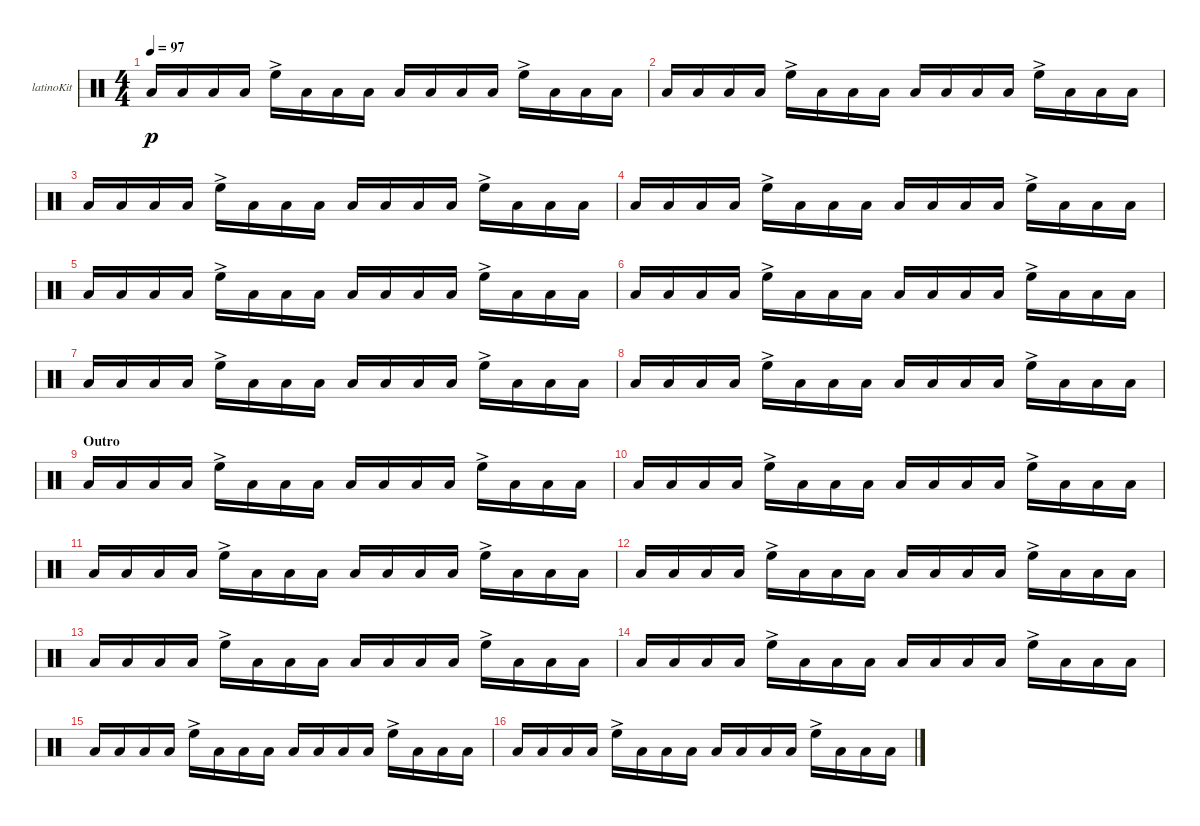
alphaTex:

\bracketExtendMode groupsimilarinstruments
\firstSystemTrackNameOrientation horizontal
\otherSystemsTrackNameOrientation horizontal
\track ("Kit-Latino" "latinoKit") {instrument percussion}
\staff {score}
\articulation defaults
\ts (4 4)
\tempo 97
\clef neutral
\ks c "Low Tom (hit)".16{dy p} "Low Tom (hit)".16 "Low Tom (hit)".16 "Low Tom (hit)".16 "High Floor Tom (hit)"{ac}.16 "Low Tom (hit)".16 "Low Tom (hit)".16 "Low Tom (hit)".16 "Low Tom (hit)".16 "Low Tom (hit)".16 "Low Tom (hit)".16 "Low Tom (hit)".16 "High Floor Tom (hit)"{ac}.16 "Low Tom (hit)".16 "Low Tom (hit)".16 "Low Tom (hit)".16
|
"Low Tom (hit)".16 "Low Tom (hit)".16 "Low Tom (hit)".16 "Low Tom (hit)".16 "High Floor Tom (hit)"{ac}.16 "Low Tom (hit)".16 "Low Tom (hit)".16 "Low Tom (hit)".16 "Low Tom (hit)".16 "Low Tom (hit)".16 "Low Tom (hit)".16 "Low Tom (hit)".16 "High Floor Tom (hit)"{ac}.16 "Low Tom (hit)".16 "Low Tom (hit)".16 "Low Tom (hit)".16 |
"Low Tom (hit)".16 "Low Tom (hit)".16 "Low Tom (hit)".16 "Low Tom (hit)".16 "High Floor Tom (hit)"{ac}.16 "Low Tom (hit)".16 "Low Tom (hit)".16 "Low Tom (hit)".16 "Low Tom (hit)".16 "Low Tom (hit)".16 "Low Tom (hit)".16 "Low Tom (hit)".16 "High Floor Tom (hit)"{ac}.16 "Low Tom (hit)".16 "Low Tom (hit)".16 "Low Tom (hit)".16 |
"Low Tom (hit)".16 "Low Tom (hit)".16 "Low Tom (hit)".16 "Low Tom (hit)".16 "High Floor Tom (hit)"{ac}.16 "Low Tom (hit)".16 "Low Tom (hit)".16 "Low Tom (hit)".16 "Low Tom (hit)".16 "Low Tom (hit)".16 "Low Tom (hit)".16 "Low Tom (hit)".16 "High Floor Tom (hit)"{ac}.16 "Low Tom (hit)".16 "Low Tom (hit)".16 "Low Tom (hit)".16 |
"Low Tom (hit)".16 "Low Tom (hit)".16 "Low Tom (hit)".16 "Low Tom (hit)".16 "High Floor Tom (hit)"{ac}.16 "Low Tom (hit)".16 "Low Tom (hit)".16 "Low Tom (hit)".16 "Low Tom (hit)".16 "Low Tom (hit)".16 "Low Tom (hit)".16 "Low Tom (hit)".16 "High Floor Tom (hit)"{ac}.16 "Low Tom (hit)".16 "Low Tom (hit)".16 "Low Tom (hit)".16 |
"Low Tom (hit)".16 "Low Tom (hit)".16 "Low Tom (hit)".16 "Low Tom (hit)".16 "High Floor Tom (hit)"{ac}.16 "Low Tom (hit)".16 "Low Tom (hit)".16 "Low Tom (hit)".16 "Low Tom (hit)".16 "Low Tom (hit)".16 "Low Tom (hit)".16 "Low Tom (hit)".16 "High Floor Tom (hit)"{ac}.16 "Low Tom (hit)".16 "Low Tom (hit)".16 "Low Tom (hit)".16 |
"Low Tom (hit)".16 "Low Tom (hit)".16 "Low Tom (hit)".16 "Low Tom (hit)".16 "High Floor Tom (hit)"{ac}.16 "Low Tom (hit)".16 "Low Tom (hit)".16 "Low Tom (hit)".16 "Low Tom (hit)".16 "Low Tom (hit)".16 "Low Tom (hit)".16 "Low Tom (hit)".16 "High Floor Tom (hit)"{ac}.16 "Low Tom (hit)".16 "Low Tom (hit)".16 "Low Tom (hit)".16 |
"Low Tom (hit)".16 "Low Tom (hit)".16 "Low Tom (hit)".16 "Low Tom (hit)".16 "High Floor Tom (hit)"{ac}.16 "Low Tom (hit)".16 "Low Tom (hit)".16 "Low Tom (hit)".16 "Low Tom (hit)".16 "Low Tom (hit)".16 "Low Tom (hit)".16 "Low Tom (hit)".16 "High Floor Tom (hit)"{ac}.16 "Low Tom (hit)".16 "Low Tom (hit)".16 "Low Tom (hit)".16 |
\section ("" "Outro")
\scale
0.333333 "Low Tom (hit)".16 "Low Tom (hit)".16 "Low Tom (hit)".16 "Low Tom (hit)".16 "High Floor Tom (hit)"{ac}.16 "Low Tom (hit)".16 "Low Tom (hit)".16 "Low Tom (hit)".16 "Low Tom (hit)".16 "Low Tom (hit)".16 "Low Tom (hit)".16 "Low Tom (hit)".16 "High Floor Tom (hit)"{ac}.16 "Low Tom (hit)".16 "Low Tom (hit)".16 "Low Tom (hit)".16 |
"Low Tom (hit)".16 "Low Tom (hit)".16 "Low Tom (hit)".16 "Low Tom (hit)".16 "High Floor Tom (hit)"{ac}.16 "Low Tom (hit)".16 "Low Tom (hit)".16 "Low Tom (hit)".16 "Low Tom (hit)".16 "Low Tom (hit)".16 "Low Tom (hit)".16 "Low Tom (hit)".16 "High Floor Tom (hit)"{ac}.16 "Low Tom (hit)".16 "Low Tom (hit)".16 "Low Tom (hit)".16 |
"Low Tom (hit)".16 "Low Tom (hit)".16 "Low Tom (hit)".16 "Low Tom (hit)".16 "High Floor Tom (hit)"{ac}.16 "Low Tom (hit)".16 "Low Tom (hit)".16 "Low Tom (hit)".16 "Low Tom (hit)".16 "Low Tom (hit)".16 "Low Tom (hit)".16 "Low Tom (hit)".16 "High Floor Tom (hit)"{ac}.16 "Low Tom (hit)".16 "Low Tom (hit)".16 "Low Tom (hit)".16 |
"Low Tom (hit)".16 "Low Tom (hit)".16 "Low Tom (hit)".16 "Low Tom (hit)".16 "High Floor Tom (hit)"{ac}.16 "Low Tom (hit)".16 "Low Tom (hit)".16 "Low Tom (hit)".16 "Low Tom (hit)".16 "Low Tom (hit)".16 "Low Tom (hit)".16 "Low Tom (hit)".16 "High Floor Tom (hit)"{ac}.16 "Low Tom (hit)".16 "Low Tom (hit)".16 "Low Tom (hit)".16 |
"Low Tom (hit)".16 "Low Tom (hit)".16 "Low Tom (hit)".16 "Low Tom (hit)".16 "High Floor Tom (hit)"{ac}.16 "Low Tom (hit)".16 "Low Tom (hit)".16 "Low Tom (hit)".16 "Low Tom (hit)".16 "Low Tom (hit)".16 "Low Tom (hit)".16 "Low Tom (hit)".16 "High Floor Tom (hit)"{ac}.16 "Low Tom (hit)".16 "Low Tom (hit)".16 "Low Tom (hit)".16 |
"Low Tom (hit)".16 "Low Tom (hit)".16 "Low Tom (hit)".16 "Low Tom (hit)".16 "High Floor Tom (hit)"{ac}.16 "Low Tom (hit)".16 "Low Tom (hit)".16 "Low Tom (hit)".16 "Low Tom (hit)".16 "Low Tom (hit)".16 "Low Tom (hit)".16 "Low Tom (hit)".16 "High Floor Tom (hit)"{ac}.16 "Low Tom (hit)".16 "Low Tom (hit)".16 "Low Tom (hit)".16 |
"Low Tom (hit)".16 "Low Tom (hit)".16 "Low Tom (hit)".16 "Low Tom (hit)".16 "High Floor Tom (hit)"{ac}.16 "Low Tom (hit)".16 "Low Tom (hit)".16 "Low Tom (hit)".16 "Low Tom (hit)".16 "Low Tom (hit)".16 "Low Tom (hit)".16 "Low Tom (hit)".16 "High Floor Tom (hit)"{ac}.16 "Low Tom (hit)".16 "Low Tom (hit)".16 "Low Tom (hit)".16 |
"Low Tom (hit)".16 "Low Tom (hit)".16 "Low Tom (hit)".16 "Low Tom (hit)".16 "High Floor Tom (hit)"{ac}.16 "Low Tom (hit)".16 "Low Tom (hit)".16 "Low Tom (hit)".16 "Low Tom (hit)".16 "Low Tom (hit)".16 "Low Tom (hit)".16 "Low Tom (hit)".16 "High Floor Tom (hit)"{ac}.16 "Low Tom (hit)".16 "Low Tom (hit)".16 "Low Tom (hit)".16
